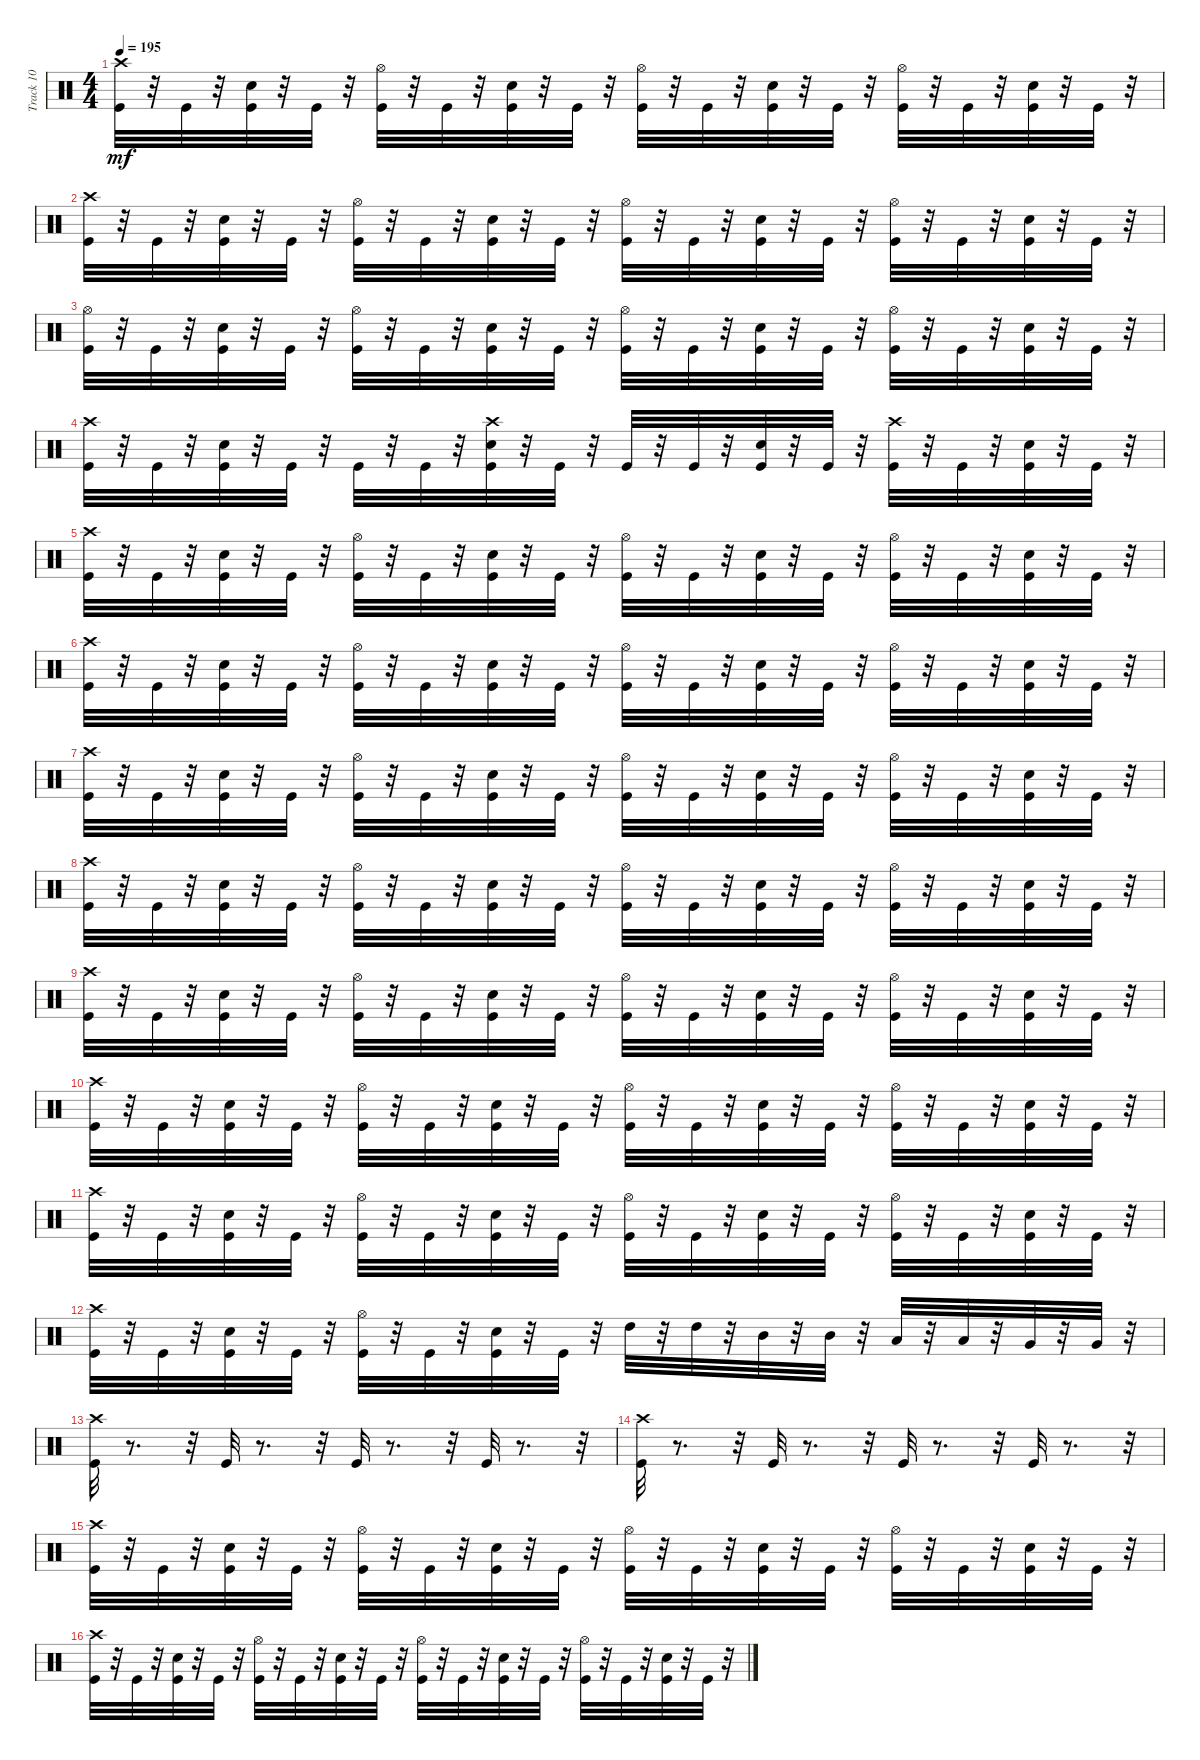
\track ("Track 10" "Track 10") {instrument percussion}
\staff {score}
\articulation defaults
\ts (4 4)
\tempo 195
\clef neutral
\ks c
("Crash high (hit)" "Kick (hit)").32{dy mf} r.32 "Kick (hit)".32 r.32 ("Electric Snare (hit)" "Kick (hit)").32 r.32 "Kick (hit)".32 r.32 ("Kick (hit)" "Hi-Hat (open)").32 r.32 "Kick (hit)".32 r.32 ("Electric Snare (hit)" "Kick (hit)").32 r.32 "Kick (hit)".32 r.32 ("Hi-Hat (open)" "Kick (hit)").32 r.32 "Kick (hit)".32 r.32 ("Electric Snare (hit)" "Kick (hit)").32 r.32 "Kick (hit)".32 r.32 ("Hi-Hat (open)" "Kick (hit)").32 r.32 "Kick (hit)".32 r.32 ("Electric Snare (hit)" "Kick (hit)").32 r.32 "Kick (hit)".32 r.32 |
("Crash high (hit)" "Kick (hit)").32 r.32 "Kick (hit)".32 r.32 ("Electric Snare (hit)" "Kick (hit)").32 r.32 "Kick (hit)".32 r.32 ("Kick (hit)" "Hi-Hat (open)").32 r.32 "Kick (hit)".32 r.32 ("Electric Snare (hit)" "Kick (hit)").32 r.32 "Kick (hit)".32 r.32 ("Hi-Hat (open)" "Kick (hit)").32 r.32 "Kick (hit)".32 r.32 ("Electric Snare (hit)" "Kick (hit)").32 r.32 "Kick (hit)".32 r.32 ("Hi-Hat (open)" "Kick (hit)").32 r.32 "Kick (hit)".32 r.32 ("Electric Snare (hit)" "Kick (hit)").32 r.32 "Kick (hit)".32 r.32 |
("Hi-Hat (open)" "Kick (hit)").32 r.32 "Kick (hit)".32 r.32 ("Electric Snare (hit)" "Kick (hit)").32 r.32 "Kick (hit)".32 r.32 ("Kick (hit)" "Hi-Hat (open)").32 r.32 "Kick (hit)".32 r.32 ("Electric Snare (hit)" "Kick (hit)").32 r.32 "Kick (hit)".32 r.32 ("Hi-Hat (open)" "Kick (hit)").32 r.32 "Kick (hit)".32 r.32 ("Electric Snare (hit)" "Kick (hit)").32 r.32 "Kick (hit)".32 r.32 ("Hi-Hat (open)" "Kick (hit)").32 r.32 "Kick (hit)".32 r.32 ("Electric Snare (hit)" "Kick (hit)").32 r.32 "Kick (hit)".32 r.32 |
("Crash high (hit)" "Kick (hit)").32 r.32 "Kick (hit)".32 r.32 ("Kick (hit)" "Electric Snare (hit)").32 r.32 "Kick (hit)".32 r.32 "Kick (hit)".32 r.32 "Kick (hit)".32 r.32 ("Crash high (hit)" "Electric Snare (hit)" "Kick (hit)").32 r.32 "Kick (hit)".32 r.32 "Kick (hit)".32 r.32 "Kick (hit)".32 r.32 ("Electric Snare (hit)" "Kick (hit)").32 r.32 "Kick (hit)".32 r.32 ("Crash high (hit)" "Kick (hit)").32 r.32 "Kick (hit)".32 r.32 ("Electric Snare (hit)" "Kick (hit)").32 r.32 "Kick (hit)".32 r.32 |
("Crash high (hit)" "Kick (hit)").32 r.32 "Kick (hit)".32 r.32 ("Electric Snare (hit)" "Kick (hit)").32 r.32 "Kick (hit)".32 r.32 ("Kick (hit)" "Hi-Hat (open)").32 r.32 "Kick (hit)".32 r.32 ("Electric Snare (hit)" "Kick (hit)").32 r.32 "Kick (hit)".32 r.32 ("Hi-Hat (open)" "Kick (hit)").32 r.32 "Kick (hit)".32 r.32 ("Electric Snare (hit)" "Kick (hit)").32 r.32 "Kick (hit)".32 r.32 ("Hi-Hat (open)" "Kick (hit)").32 r.32 "Kick (hit)".32 r.32 ("Electric Snare (hit)" "Kick (hit)").32 r.32 "Kick (hit)".32 r.32 |
("Crash high (hit)" "Kick (hit)").32 r.32 "Kick (hit)".32 r.32 ("Electric Snare (hit)" "Kick (hit)").32 r.32 "Kick (hit)".32 r.32 ("Kick (hit)" "Hi-Hat (open)").32 r.32 "Kick (hit)".32 r.32 ("Electric Snare (hit)" "Kick (hit)").32 r.32 "Kick (hit)".32 r.32 ("Hi-Hat (open)" "Kick (hit)").32 r.32 "Kick (hit)".32 r.32 ("Electric Snare (hit)" "Kick (hit)").32 r.32 "Kick (hit)".32 r.32 ("Hi-Hat (open)" "Kick (hit)").32 r.32 "Kick (hit)".32 r.32 ("Electric Snare (hit)" "Kick (hit)").32 r.32 "Kick (hit)".32 r.32 |
("Crash high (hit)" "Kick (hit)").32 r.32 "Kick (hit)".32 r.32 ("Electric Snare (hit)" "Kick (hit)").32 r.32 "Kick (hit)".32 r.32 ("Kick (hit)" "Hi-Hat (open)").32 r.32 "Kick (hit)".32 r.32 ("Electric Snare (hit)" "Kick (hit)").32 r.32 "Kick (hit)".32 r.32 ("Hi-Hat (open)" "Kick (hit)").32 r.32 "Kick (hit)".32 r.32 ("Electric Snare (hit)" "Kick (hit)").32 r.32 "Kick (hit)".32 r.32 ("Hi-Hat (open)" "Kick (hit)").32 r.32 "Kick (hit)".32 r.32 ("Electric Snare (hit)" "Kick (hit)").32 r.32 "Kick (hit)".32 r.32 |
("Crash high (hit)" "Kick (hit)").32 r.32 "Kick (hit)".32 r.32 ("Electric Snare (hit)" "Kick (hit)").32 r.32 "Kick (hit)".32 r.32 ("Kick (hit)" "Hi-Hat (open)").32 r.32 "Kick (hit)".32 r.32 ("Electric Snare (hit)" "Kick (hit)").32 r.32 "Kick (hit)".32 r.32 ("Hi-Hat (open)" "Kick (hit)").32 r.32 "Kick (hit)".32 r.32 ("Electric Snare (hit)" "Kick (hit)").32 r.32 "Kick (hit)".32 r.32 ("Hi-Hat (open)" "Kick (hit)").32 r.32 "Kick (hit)".32 r.32 ("Electric Snare (hit)" "Kick (hit)").32 r.32 "Kick (hit)".32 r.32 |
("Crash high (hit)" "Kick (hit)").32 r.32 "Kick (hit)".32 r.32 ("Electric Snare (hit)" "Kick (hit)").32 r.32 "Kick (hit)".32 r.32 ("Kick (hit)" "Hi-Hat (open)").32 r.32 "Kick (hit)".32 r.32 ("Electric Snare (hit)" "Kick (hit)").32 r.32 "Kick (hit)".32 r.32 ("Hi-Hat (open)" "Kick (hit)").32 r.32 "Kick (hit)".32 r.32 ("Electric Snare (hit)" "Kick (hit)").32 r.32 "Kick (hit)".32 r.32 ("Hi-Hat (open)" "Kick (hit)").32 r.32 "Kick (hit)".32 r.32 ("Electric Snare (hit)" "Kick (hit)").32 r.32 "Kick (hit)".32 r.32 |
("Crash high (hit)" "Kick (hit)").32 r.32 "Kick (hit)".32 r.32 ("Electric Snare (hit)" "Kick (hit)").32 r.32 "Kick (hit)".32 r.32 ("Kick (hit)" "Hi-Hat (open)").32 r.32 "Kick (hit)".32 r.32 ("Electric Snare (hit)" "Kick (hit)").32 r.32 "Kick (hit)".32 r.32 ("Hi-Hat (open)" "Kick (hit)").32 r.32 "Kick (hit)".32 r.32 ("Electric Snare (hit)" "Kick (hit)").32 r.32 "Kick (hit)".32 r.32 ("Hi-Hat (open)" "Kick (hit)").32 r.32 "Kick (hit)".32 r.32 ("Electric Snare (hit)" "Kick (hit)").32 r.32 "Kick (hit)".32 r.32 |
("Crash high (hit)" "Kick (hit)").32 r.32 "Kick (hit)".32 r.32 ("Electric Snare (hit)" "Kick (hit)").32 r.32 "Kick (hit)".32 r.32 ("Kick (hit)" "Hi-Hat (open)").32 r.32 "Kick (hit)".32 r.32 ("Electric Snare (hit)" "Kick (hit)").32 r.32 "Kick (hit)".32 r.32 ("Hi-Hat (open)" "Kick (hit)").32 r.32 "Kick (hit)".32 r.32 ("Electric Snare (hit)" "Kick (hit)").32 r.32 "Kick (hit)".32 r.32 ("Hi-Hat (open)" "Kick (hit)").32 r.32 "Kick (hit)".32 r.32 ("Electric Snare (hit)" "Kick (hit)").32 r.32 "Kick (hit)".32 r.32 |
("Crash high (hit)" "Kick (hit)").32 r.32 "Kick (hit)".32 r.32 ("Electric Snare (hit)" "Kick (hit)").32 r.32 "Kick (hit)".32 r.32 ("Kick (hit)" "Hi-Hat (open)").32 r.32 "Kick (hit)".32 r.32 ("Electric Snare (hit)" "Kick (hit)").32 r.32 "Kick (hit)".32 r.32 "High Tom (hit)".32 r.32 "High Tom (hit)".32 r.32 "Mid Tom (hit)".32 r.32 "Mid Tom (hit)".32 r.32 "Low Tom (hit)".32 r.32 "Low Tom (hit)".32 r.32 "Very Low Tom (hit)".32 r.32 "Very Low Tom (hit)".32 r.32 |
("Kick (hit)" "Crash high (hit)").32 r.8{d} r.32 "Kick (hit)".32 r.8{d} r.32 "Kick (hit)".32 r.8{d} r.32 "Kick (hit)".32 r.8{d} r.32 |
("Kick (hit)" "Crash high (hit)").32 r.8{d} r.32 "Kick (hit)".32 r.8{d} r.32 "Kick (hit)".32 r.8{d} r.32 "Kick (hit)".32 r.8{d} r.32 |
("Crash high (hit)" "Kick (hit)").32 r.32 "Kick (hit)".32 r.32 ("Electric Snare (hit)" "Kick (hit)").32 r.32 "Kick (hit)".32 r.32 ("Hi-Hat (open)" "Kick (hit)").32 r.32 "Kick (hit)".32 r.32 ("Electric Snare (hit)" "Kick (hit)").32 r.32 "Kick (hit)".32 r.32 ("Hi-Hat (open)" "Kick (hit)").32 r.32 "Kick (hit)".32 r.32 ("Electric Snare (hit)" "Kick (hit)").32 r.32 "Kick (hit)".32 r.32 ("Hi-Hat (open)" "Kick (hit)").32 r.32 "Kick (hit)".32 r.32 ("Electric Snare (hit)" "Kick (hit)").32 r.32 "Kick (hit)".32 r.32 |
("Crash high (hit)" "Kick (hit)").32 r.32 "Kick (hit)".32 r.32 ("Electric Snare (hit)" "Kick (hit)").32 r.32 "Kick (hit)".32 r.32 ("Hi-Hat (open)" "Kick (hit)").32 r.32 "Kick (hit)".32 r.32 ("Electric Snare (hit)" "Kick (hit)").32 r.32 "Kick (hit)".32 r.32 ("Hi-Hat (open)" "Kick (hit)").32 r.32 "Kick (hit)".32 r.32 ("Electric Snare (hit)" "Kick (hit)").32 r.32 "Kick (hit)".32 r.32 ("Hi-Hat (open)" "Kick (hit)").32 r.32 "Kick (hit)".32 r.32 ("Electric Snare (hit)" "Kick (hit)").32 r.32 "Kick (hit)".32 r.32
